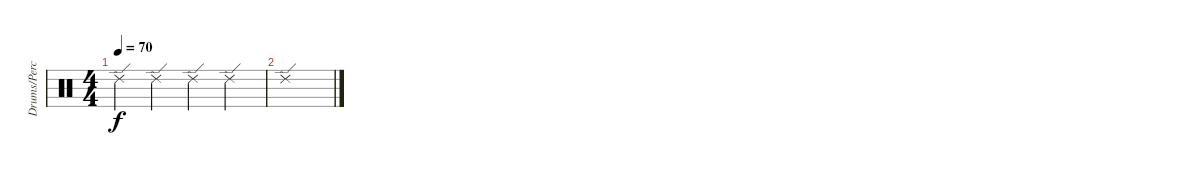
\track ("Drums/Percussion (Bengerg)" "Drums/Perc") {instrument percussion}
\staff {score}
\articulation defaults
\ts (4 4)
\tempo 70
\clef neutral
\ks c "Ride (edge) 2".4{dy f} "Ride (edge) 2".4 "Ride (edge) 2".4 "Ride (edge) 2".4
|
"Ride (edge) 2".1
